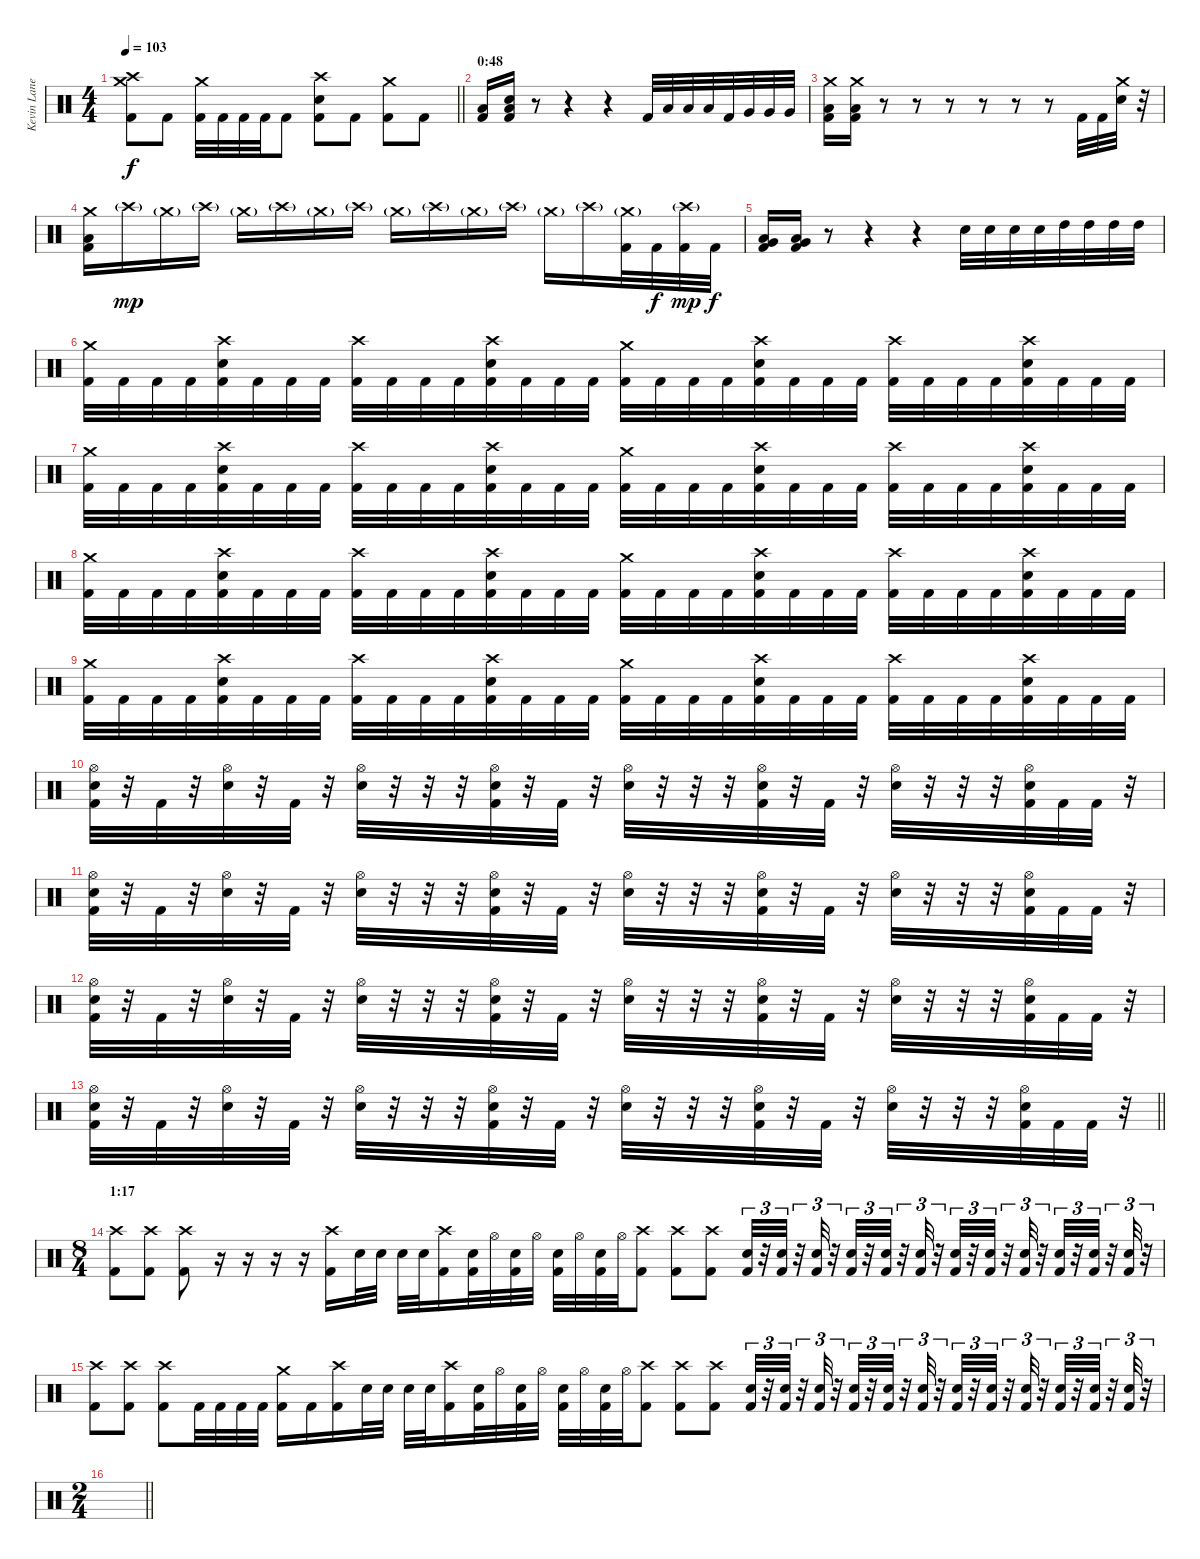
\track ("Kevin Lane" "Kevin Lane") {instrument percussion}
\staff {score}
\articulation defaults
\ts (4 4)
\tempo 103
\clef neutral
\barLineRight lightlight
\ks c
("Crash high (hit)" "Crash medium (hit)" "Kick (hit) 2").8{dy f} "Kick (hit) 2".8 ("Crash medium (hit)" "Kick (hit) 2").32 "Kick (hit) 2".32 "Kick (hit) 2".32 "Kick (hit) 2".32 "Kick (hit) 2".8 ("Crash high (hit)" "Electric Snare (hit)" "Kick (hit) 2").8 "Kick (hit) 2".8 ("Crash medium (hit)" "Kick (hit) 2").8 "Kick (hit) 2".8 |
\section ("" "0:48")
("Low Floor Tom (hit)" "Kick (hit) 2").16 ("Low Floor Tom (hit)" "Electric Snare (hit)" "Kick (hit) 2").16 r.8 r.4 r.4 "Kick (hit) 2".32 "Low Tom (hit)".32 "Low Tom (hit)".32 "Low Tom (hit)".32 "Kick (hit) 2".32 "Very Low Tom (hit)".32 "Very Low Tom (hit)".32 "Very Low Tom (hit)".32 |
("Crash medium (hit)" "Low Floor Tom (hit)" "Kick (hit) 2").16 ("Crash medium (hit)" "Low Floor Tom (hit)" "Kick (hit) 2").16 r.8 r.8 r.8 r.8 r.8 r.8 "Kick (hit) 2".32 "Kick (hit) 2".32 ("Crash medium (hit)" "Electric Snare (hit)").32 r.32 |
("Crash medium (hit)" "Low Floor Tom (hit)" "Kick (hit) 2").16 "Crash high (hit)"{g}.16{dy mp} "Crash medium (hit)"{g}.16 "Crash high (hit)"{g}.16 "Crash medium (hit)"{g}.16 "Crash high (hit)"{g}.16 "Crash medium (hit)"{g}.16 "Crash high (hit)"{g}.16 "Crash medium (hit)"{g}.16 "Crash high (hit)"{g}.16 "Crash medium (hit)"{g}.16 "Crash high (hit)"{g}.16 "Crash medium (hit)"{g}.16 "Crash high (hit)"{g}.16 ("Crash medium (hit)"{g} "Kick (hit) 2").32 "Kick (hit) 2".32{dy f} ("Crash high (hit)"{g} "Kick (hit) 2").32{dy mp} "Kick (hit) 2".32{dy f} |
("Very Low Tom (hit)" "Low Floor Tom (hit)" "Kick (hit) 2").16 ("Very Low Tom (hit)" "Low Floor Tom (hit)" "Kick (hit) 2").16 r.8 r.4 r.4 "Electric Snare (hit)".32 "Electric Snare (hit)".32 "Electric Snare (hit)".32 "Electric Snare (hit)".32 "High Tom (hit)".32 "High Tom (hit)".32 "High Tom (hit)".32 "High Tom (hit)".32 |
("Crash medium (hit)" "Kick (hit) 2").32 "Kick (hit) 2".32 "Kick (hit) 2".32 "Kick (hit) 2".32 ("Crash high (hit)" "Electric Snare (hit)" "Kick (hit) 2").32 "Kick (hit) 2".32 "Kick (hit) 2".32 "Kick (hit) 2".32 ("Crash high (hit)" "Kick (hit) 2").32 "Kick (hit) 2".32 "Kick (hit) 2".32 "Kick (hit) 2".32 ("Crash high (hit)" "Electric Snare (hit)" "Kick (hit) 2").32 "Kick (hit) 2".32 "Kick (hit) 2".32 "Kick (hit) 2".32 ("Crash medium (hit)" "Kick (hit) 2").32 "Kick (hit) 2".32 "Kick (hit) 2".32 "Kick (hit) 2".32 ("Crash high (hit)" "Electric Snare (hit)" "Kick (hit) 2").32 "Kick (hit) 2".32 "Kick (hit) 2".32 "Kick (hit) 2".32 ("Crash high (hit)" "Kick (hit) 2").32 "Kick (hit) 2".32 "Kick (hit) 2".32 "Kick (hit) 2".32 ("Crash high (hit)" "Electric Snare (hit)" "Kick (hit) 2").32 "Kick (hit) 2".32 "Kick (hit) 2".32 "Kick (hit) 2".32 |
("Crash medium (hit)" "Kick (hit) 2").32 "Kick (hit) 2".32 "Kick (hit) 2".32 "Kick (hit) 2".32 ("Crash high (hit)" "Electric Snare (hit)" "Kick (hit) 2").32 "Kick (hit) 2".32 "Kick (hit) 2".32 "Kick (hit) 2".32 ("Crash high (hit)" "Kick (hit) 2").32 "Kick (hit) 2".32 "Kick (hit) 2".32 "Kick (hit) 2".32 ("Crash high (hit)" "Electric Snare (hit)" "Kick (hit) 2").32 "Kick (hit) 2".32 "Kick (hit) 2".32 "Kick (hit) 2".32 ("Crash medium (hit)" "Kick (hit) 2").32 "Kick (hit) 2".32 "Kick (hit) 2".32 "Kick (hit) 2".32 ("Crash high (hit)" "Electric Snare (hit)" "Kick (hit) 2").32 "Kick (hit) 2".32 "Kick (hit) 2".32 "Kick (hit) 2".32 ("Crash high (hit)" "Kick (hit) 2").32 "Kick (hit) 2".32 "Kick (hit) 2".32 "Kick (hit) 2".32 ("Crash high (hit)" "Electric Snare (hit)" "Kick (hit) 2").32 "Kick (hit) 2".32 "Kick (hit) 2".32 "Kick (hit) 2".32 |
("Crash medium (hit)" "Kick (hit) 2").32 "Kick (hit) 2".32 "Kick (hit) 2".32 "Kick (hit) 2".32 ("Crash high (hit)" "Electric Snare (hit)" "Kick (hit) 2").32 "Kick (hit) 2".32 "Kick (hit) 2".32 "Kick (hit) 2".32 ("Crash high (hit)" "Kick (hit) 2").32 "Kick (hit) 2".32 "Kick (hit) 2".32 "Kick (hit) 2".32 ("Crash high (hit)" "Electric Snare (hit)" "Kick (hit) 2").32 "Kick (hit) 2".32 "Kick (hit) 2".32 "Kick (hit) 2".32 ("Crash medium (hit)" "Kick (hit) 2").32 "Kick (hit) 2".32 "Kick (hit) 2".32 "Kick (hit) 2".32 ("Crash high (hit)" "Electric Snare (hit)" "Kick (hit) 2").32 "Kick (hit) 2".32 "Kick (hit) 2".32 "Kick (hit) 2".32 ("Crash high (hit)" "Kick (hit) 2").32 "Kick (hit) 2".32 "Kick (hit) 2".32 "Kick (hit) 2".32 ("Crash high (hit)" "Electric Snare (hit)" "Kick (hit) 2").32 "Kick (hit) 2".32 "Kick (hit) 2".32 "Kick (hit) 2".32 |
("Crash medium (hit)" "Kick (hit) 2").32 "Kick (hit) 2".32 "Kick (hit) 2".32 "Kick (hit) 2".32 ("Crash high (hit)" "Electric Snare (hit)" "Kick (hit) 2").32 "Kick (hit) 2".32 "Kick (hit) 2".32 "Kick (hit) 2".32 ("Crash high (hit)" "Kick (hit) 2").32 "Kick (hit) 2".32 "Kick (hit) 2".32 "Kick (hit) 2".32 ("Crash high (hit)" "Electric Snare (hit)" "Kick (hit) 2").32 "Kick (hit) 2".32 "Kick (hit) 2".32 "Kick (hit) 2".32 ("Crash medium (hit)" "Kick (hit) 2").32 "Kick (hit) 2".32 "Kick (hit) 2".32 "Kick (hit) 2".32 ("Crash high (hit)" "Electric Snare (hit)" "Kick (hit) 2").32 "Kick (hit) 2".32 "Kick (hit) 2".32 "Kick (hit) 2".32 ("Crash high (hit)" "Kick (hit) 2").32 "Kick (hit) 2".32 "Kick (hit) 2".32 "Kick (hit) 2".32 ("Crash high (hit)" "Electric Snare (hit)" "Kick (hit) 2").32 "Kick (hit) 2".32 "Kick (hit) 2".32 "Kick (hit) 2".32 |
("Hi-Hat (open)" "Electric Snare (hit)" "Kick (hit) 2").32 r.32 "Kick (hit) 2".32 r.32 ("Hi-Hat (open)" "Electric Snare (hit)").32 r.32 "Kick (hit) 2".32 r.32 ("Hi-Hat (open)" "Electric Snare (hit)").32 r.32 r.32 r.32 ("Hi-Hat (open)" "Electric Snare (hit)" "Kick (hit) 2").32 r.32 "Kick (hit) 2".32 r.32 ("Hi-Hat (open)" "Electric Snare (hit)").32 r.32 r.32 r.32 ("Hi-Hat (open)" "Electric Snare (hit)" "Kick (hit) 2").32 r.32 "Kick (hit) 2".32 r.32 ("Hi-Hat (open)" "Electric Snare (hit)").32 r.32 r.32 r.32 ("Hi-Hat (open)" "Electric Snare (hit)" "Kick (hit) 2").32 "Kick (hit) 2".32 "Kick (hit) 2".32 r.32 |
("Hi-Hat (open)" "Electric Snare (hit)" "Kick (hit) 2").32 r.32 "Kick (hit) 2".32 r.32 ("Hi-Hat (open)" "Electric Snare (hit)").32 r.32 "Kick (hit) 2".32 r.32 ("Hi-Hat (open)" "Electric Snare (hit)").32 r.32 r.32 r.32 ("Hi-Hat (open)" "Electric Snare (hit)" "Kick (hit) 2").32 r.32 "Kick (hit) 2".32 r.32 ("Hi-Hat (open)" "Electric Snare (hit)").32 r.32 r.32 r.32 ("Hi-Hat (open)" "Electric Snare (hit)" "Kick (hit) 2").32 r.32 "Kick (hit) 2".32 r.32 ("Hi-Hat (open)" "Electric Snare (hit)").32 r.32 r.32 r.32 ("Hi-Hat (open)" "Electric Snare (hit)" "Kick (hit) 2").32 "Kick (hit) 2".32 "Kick (hit) 2".32 r.32 |
("Hi-Hat (open)" "Electric Snare (hit)" "Kick (hit) 2").32 r.32 "Kick (hit) 2".32 r.32 ("Hi-Hat (open)" "Electric Snare (hit)").32 r.32 "Kick (hit) 2".32 r.32 ("Hi-Hat (open)" "Electric Snare (hit)").32 r.32 r.32 r.32 ("Hi-Hat (open)" "Electric Snare (hit)" "Kick (hit) 2").32 r.32 "Kick (hit) 2".32 r.32 ("Hi-Hat (open)" "Electric Snare (hit)").32 r.32 r.32 r.32 ("Hi-Hat (open)" "Electric Snare (hit)" "Kick (hit) 2").32 r.32 "Kick (hit) 2".32 r.32 ("Hi-Hat (open)" "Electric Snare (hit)").32 r.32 r.32 r.32 ("Hi-Hat (open)" "Electric Snare (hit)" "Kick (hit) 2").32 "Kick (hit) 2".32 "Kick (hit) 2".32 r.32 |
\barLineRight lightlight
("Hi-Hat (open)" "Electric Snare (hit)" "Kick (hit) 2").32 r.32 "Kick (hit) 2".32 r.32 ("Hi-Hat (open)" "Electric Snare (hit)").32 r.32 "Kick (hit) 2".32 r.32 ("Hi-Hat (open)" "Electric Snare (hit)").32 r.32 r.32 r.32 ("Hi-Hat (open)" "Electric Snare (hit)" "Kick (hit) 2").32 r.32 "Kick (hit) 2".32 r.32 ("Hi-Hat (open)" "Electric Snare (hit)").32 r.32 r.32 r.32 ("Hi-Hat (open)" "Electric Snare (hit)" "Kick (hit) 2").32 r.32 "Kick (hit) 2".32 r.32 ("Hi-Hat (open)" "Electric Snare (hit)").32 r.32 r.32 r.32 ("Hi-Hat (open)" "Electric Snare (hit)" "Kick (hit) 2").32 "Kick (hit) 2".32 "Kick (hit) 2".32 r.32 |
\ts (8 4)
\section ("" "1:17")
("Crash high (hit)" "Kick (hit) 2").8 ("Crash high (hit)" "Kick (hit) 2").8 ("Crash high (hit)" "Kick (hit) 2").8 r.16 r.16 r.16 r.16 ("Crash high (hit)" "Kick (hit) 2").16 "Electric Snare (hit)".32 "Electric Snare (hit)".32 "Electric Snare (hit)".32 "Electric Snare (hit)".32 ("Crash high (hit)" "Kick (hit) 2").16 ("Electric Snare (hit)" "Kick (hit) 2").32 "Hi-Hat (open)".32 ("Electric Snare (hit)" "Kick (hit) 2").32 "Hi-Hat (open)".32 ("Electric Snare (hit)" "Kick (hit) 2").32 "Hi-Hat (open)".32 ("Electric Snare (hit)" "Kick (hit) 2").32 "Hi-Hat (open)".32 ("Crash high (hit)" "Kick (hit) 2").8 ("Crash high (hit)" "Kick (hit) 2").8 ("Crash high (hit)" "Kick (hit) 2").8 ("Electric Snare (hit)" "Kick (hit) 2").32{tu (3 2)} r.32{tu (3 2)} ("Electric Snare (hit)" "Kick (hit) 2").32{tu (3 2)} r.32{tu (3 2)} ("Electric Snare (hit)" "Kick (hit) 2").32{tu (3 2)} r.32{tu (3 2)} ("Electric Snare (hit)" "Kick (hit) 2").32{tu (3 2)} r.32{tu (3 2)} ("Electric Snare (hit)" "Kick (hit) 2").32{tu (3 2)} r.32{tu (3 2)} ("Electric Snare (hit)" "Kick (hit) 2").32{tu (3 2)} r.32{tu (3 2)} ("Electric Snare (hit)" "Kick (hit) 2").32{tu (3 2)} r.32{tu (3 2)} ("Electric Snare (hit)" "Kick (hit) 2").32{tu (3 2)} r.32{tu (3 2)} ("Electric Snare (hit)" "Kick (hit) 2").32{tu (3 2)} r.32{tu (3 2)} ("Electric Snare (hit)" "Kick (hit) 2").32{tu (3 2)} r.32{tu (3 2)} ("Electric Snare (hit)" "Kick (hit) 2").32{tu (3 2)} r.32{tu (3 2)} ("Electric Snare (hit)" "Kick (hit) 2").32{tu (3 2)} r.32{tu (3 2)} |
("Crash high (hit)" "Kick (hit) 2").8 ("Crash high (hit)" "Kick (hit) 2").8 ("Crash high (hit)" "Kick (hit) 2").8 "Kick (hit) 2".32 "Kick (hit) 2".32 "Kick (hit) 2".32 "Kick (hit) 2".32 ("Crash medium (hit)" "Kick (hit) 2").16 "Kick (hit) 2".16 ("Crash high (hit)" "Kick (hit) 2").16 "Electric Snare (hit)".32 "Electric Snare (hit)".32 "Electric Snare (hit)".32 "Electric Snare (hit)".32 ("Crash high (hit)" "Kick (hit) 2").16 ("Electric Snare (hit)" "Kick (hit) 2").32 "Hi-Hat (open)".32 ("Electric Snare (hit)" "Kick (hit) 2").32 "Hi-Hat (open)".32 ("Electric Snare (hit)" "Kick (hit) 2").32 "Hi-Hat (open)".32 ("Electric Snare (hit)" "Kick (hit) 2").32 "Hi-Hat (open)".32 ("Crash high (hit)" "Kick (hit) 2").8 ("Crash high (hit)" "Kick (hit) 2").8 ("Crash high (hit)" "Kick (hit) 2").8 ("Electric Snare (hit)" "Kick (hit) 2").32{tu (3 2)} r.32{tu (3 2)} ("Electric Snare (hit)" "Kick (hit) 2").32{tu (3 2)} r.32{tu (3 2)} ("Electric Snare (hit)" "Kick (hit) 2").32{tu (3 2)} r.32{tu (3 2)} ("Electric Snare (hit)" "Kick (hit) 2").32{tu (3 2)} r.32{tu (3 2)} ("Electric Snare (hit)" "Kick (hit) 2").32{tu (3 2)} r.32{tu (3 2)} ("Electric Snare (hit)" "Kick (hit) 2").32{tu (3 2)} r.32{tu (3 2)} ("Electric Snare (hit)" "Kick (hit) 2").32{tu (3 2)} r.32{tu (3 2)} ("Electric Snare (hit)" "Kick (hit) 2").32{tu (3 2)} r.32{tu (3 2)} ("Electric Snare (hit)" "Kick (hit) 2").32{tu (3 2)} r.32{tu (3 2)} ("Electric Snare (hit)" "Kick (hit) 2").32{tu (3 2)} r.32{tu (3 2)} ("Electric Snare (hit)" "Kick (hit) 2").32{tu (3 2)} r.32{tu (3 2)} ("Electric Snare (hit)" "Kick (hit) 2").32{tu (3 2)} r.32{tu (3 2)} |
\ts (2 4)
\barLineRight lightlight
